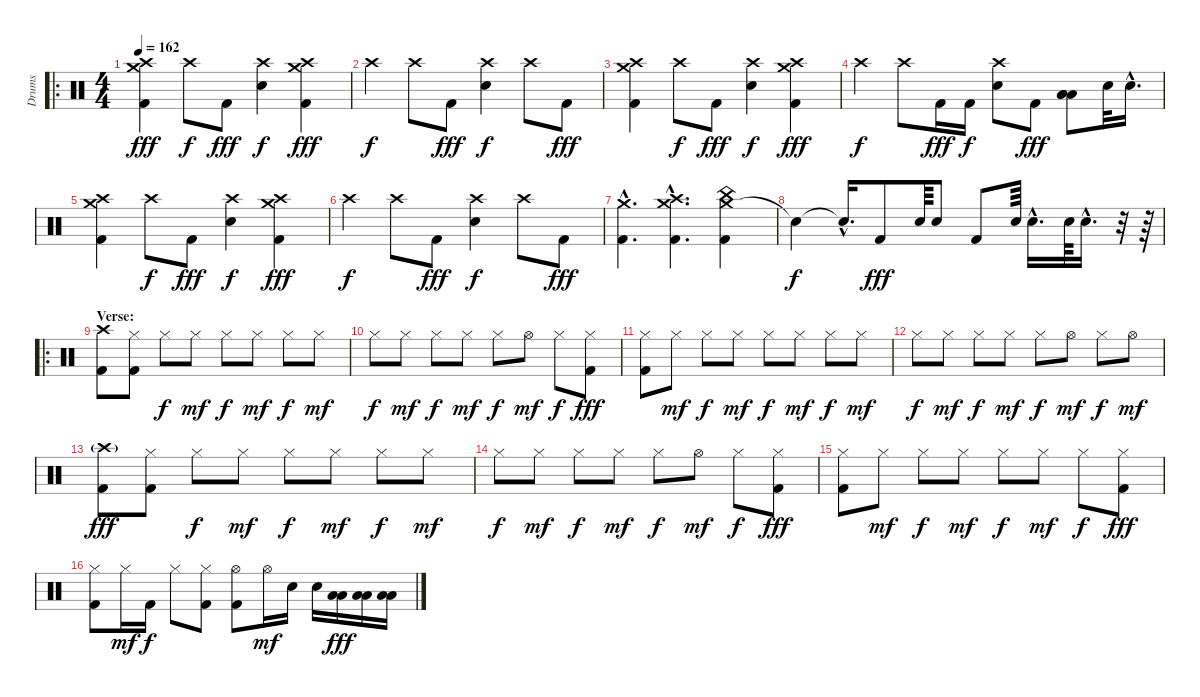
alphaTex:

\track ("Drums" "Drums") {instrument percussion}
\staff {score}
\articulation defaults
\ro
\ts (4 4)
\tempo 162
\clef neutral
\ks c
("Crash high (hit)" "Crash medium (hit)" "Kick (hit) 2").4{dy fff} "Crash high (hit)".8{dy f} "Kick (hit) 2".8{dy fff} ("Crash high (hit)" "Snare (hit) 2").4{dy f} ("Crash medium (hit)" "Crash high (hit)" "Kick (hit) 2").4{dy fff} |
"Crash high (hit)".4{dy f} "Crash high (hit)".8 "Kick (hit) 2".8{dy fff} ("Crash high (hit)" "Snare (hit) 2").4{dy f} "Crash high (hit)".8 "Kick (hit) 2".8{dy fff} |
("Crash high (hit)" "Crash medium (hit)" "Kick (hit) 2").4 "Crash high (hit)".8{dy f} "Kick (hit) 2".8{dy fff} ("Crash high (hit)" "Snare (hit) 2").4{dy f} ("Crash medium (hit)" "Crash high (hit)" "Kick (hit) 2").4{dy fff} |
"Crash high (hit)".4{dy f} "Crash high (hit)".8 "Kick (hit) 2".16{dy fff} "Kick (hit) 2".16{dy f} ("Crash high (hit)" "Snare (hit) 2").8 "Kick (hit) 2".8{dy fff} ("Low Floor Tom (hit)" "Low Floor Tom (hit)" "Low Tom (hit)").8 "Snare (hit) 2".32 "Snare (hit) 2"{hac}.16{d} |
("Crash high (hit)" "Crash medium (hit)" "Kick (hit) 2").4 "Crash high (hit)".8{dy f} "Kick (hit) 2".8{dy fff} ("Crash high (hit)" "Snare (hit) 2").4{dy f} ("Crash medium (hit)" "Crash high (hit)" "Kick (hit) 2").4{dy fff} |
"Crash high (hit)".4{dy f} "Crash high (hit)".8 "Kick (hit) 2".8{dy fff} ("Crash high (hit)" "Snare (hit) 2").4{dy f} "Crash high (hit)".8 "Kick (hit) 2".8{dy fff} |
("Crash medium (hit)"{hac} "Kick (hit) 2"{hac}).4{d} ("Crash high (hit)"{hac} "Crash medium (hit)"{hac} "Kick (hit) 2"{hac}).4{d} ("Crash medium (hit)" "China (hit)" "Kick (hit) 2").4 |
"Snare (hit)"{t}.4{dy f} "Snare (hit)"{hac t}.16{d} "Kick (hit) 2".8{dy fff} "Snare (hit) 2".64 "Snare (hit) 2".8 "Kick (hit) 2".8 "Snare (hit) 2".64 "Snare (hit) 2"{hac}.16{d} "Snare (hit) 2".64 "Snare (hit) 2"{hac}.16{d} r.32 r.64 |
\ro
\section ("" "Verse:")
("Crash high (hit)" "Kick (hit) 2").8 ("Hi-Hat (closed)" "Kick (hit) 2").8 "Hi-Hat (closed)".8{dy f} "Hi-Hat (closed)".8{dy mf} "Hi-Hat (closed)".8{dy f} "Hi-Hat (closed)".8{dy mf} "Hi-Hat (closed)".8{dy f} "Hi-Hat (closed)".8{dy mf} |
"Hi-Hat (closed)".8{dy f} "Hi-Hat (closed)".8{dy mf} "Hi-Hat (closed)".8{dy f} "Hi-Hat (closed)".8{dy mf} "Hi-Hat (closed)".8{dy f} "Hi-Hat (open)".8{dy mf} "Hi-Hat (closed)".8{dy f} ("Hi-Hat (closed)" "Kick (hit) 2").8{dy fff} |
("Hi-Hat (closed)" "Kick (hit) 2").8 "Hi-Hat (closed)".8{dy mf} "Hi-Hat (closed)".8{dy f} "Hi-Hat (closed)".8{dy mf} "Hi-Hat (closed)".8{dy f} "Hi-Hat (closed)".8{dy mf} "Hi-Hat (closed)".8{dy f} "Hi-Hat (closed)".8{dy mf} |
"Hi-Hat (closed)".8{dy f} "Hi-Hat (closed)".8{dy mf} "Hi-Hat (closed)".8{dy f} "Hi-Hat (closed)".8{dy mf} "Hi-Hat (closed)".8{dy f} "Hi-Hat (open)".8{dy mf} "Hi-Hat (closed)".8{dy f} "Hi-Hat (open)".8{dy mf} |
("Crash high (hit)"{g} "Kick (hit) 2").8{dy fff} ("Hi-Hat (closed)" "Kick (hit) 2").8 "Hi-Hat (closed)".8{dy f} "Hi-Hat (closed)".8{dy mf} "Hi-Hat (closed)".8{dy f} "Hi-Hat (closed)".8{dy mf} "Hi-Hat (closed)".8{dy f} "Hi-Hat (closed)".8{dy mf} |
"Hi-Hat (closed)".8{dy f} "Hi-Hat (closed)".8{dy mf} "Hi-Hat (closed)".8{dy f} "Hi-Hat (closed)".8{dy mf} "Hi-Hat (closed)".8{dy f} "Hi-Hat (open)".8{dy mf} "Hi-Hat (closed)".8{dy f} ("Hi-Hat (closed)" "Kick (hit) 2").8{dy fff} |
("Hi-Hat (closed)" "Kick (hit) 2").8 "Hi-Hat (closed)".8{dy mf} "Hi-Hat (closed)".8{dy f} "Hi-Hat (closed)".8{dy mf} "Hi-Hat (closed)".8{dy f} "Hi-Hat (closed)".8{dy mf} "Hi-Hat (closed)".8{dy f} ("Hi-Hat (closed)" "Kick (hit) 2").8{dy fff} |
("Hi-Hat (closed)" "Kick (hit) 2").8 "Hi-Hat (closed)".16{dy mf} "Kick (hit) 2".16{dy f} "Hi-Hat (closed)".8 ("Hi-Hat (closed)" "Kick (hit) 2").8 ("Hi-Hat (open)" "Kick (hit) 2").8 "Hi-Hat (open)".16{dy mf} "Snare (hit) 2".16 "Snare (hit) 2".16 ("Low Tom (hit)" "Low Tom (hit)").16{dy fff} ("Low Tom (hit)" "Low Tom (hit)").16 ("Low Floor Tom (hit)" "Low Floor Tom (hit)").16
